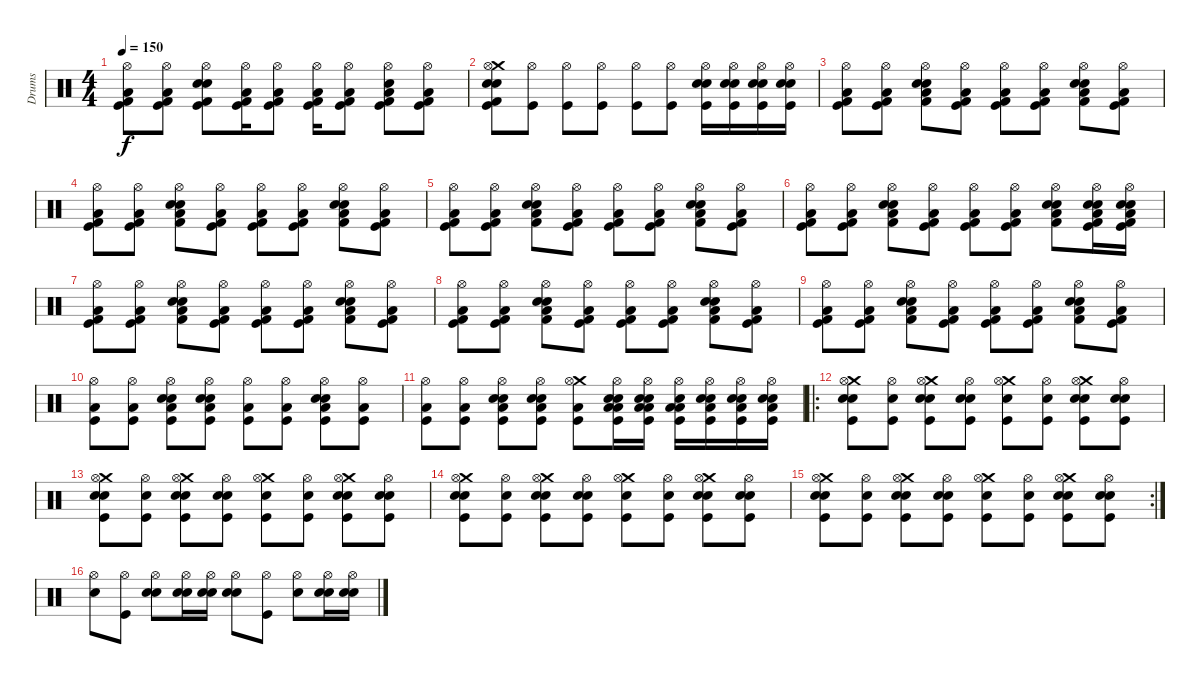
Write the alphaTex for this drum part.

\track ("Drums" "Drums") {instrument percussion}
\staff {score}
\articulation defaults
\ts (4 4)
\tempo 150
\clef neutral
\ks c
("Hi-Hat (open)" "Kick (hit) 2" "Low Floor Tom (hit)" "Kick (hit)").8{dy f} ("Hi-Hat (open)" "Kick (hit) 2" "Low Floor Tom (hit)" "Kick (hit)").8 ("Hi-Hat (open)" "Snare (hit) 2" "Kick (hit) 2" "Electric Snare (hit)" "Kick (hit)").8 ("Hi-Hat (open)" "Low Floor Tom (hit)" "Kick (hit) 2" "Kick (hit)").16 ("Hi-Hat (open)" "Low Floor Tom (hit)" "Kick (hit) 2" "Kick (hit)").8 ("Hi-Hat (open)" "Low Floor Tom (hit)" "Kick (hit) 2" "Kick (hit)").16 ("Hi-Hat (open)" "Low Floor Tom (hit)" "Kick (hit) 2" "Kick (hit)").8 ("Hi-Hat (open)" "Snare (hit) 2" "Low Floor Tom (hit)" "Kick (hit) 2" "Kick (hit)").8 ("Hi-Hat (open)" "Low Floor Tom (hit)" "Kick (hit) 2" "Kick (hit)").8 |
("Crash medium (hit)" "Snare (hit) 2" "Electric Snare (hit)" "Hi-Hat (open)" "Kick (hit) 2" "Kick (hit)").8 ("Hi-Hat (open)" "Kick (hit)").8 ("Hi-Hat (open)" "Kick (hit)").8 ("Hi-Hat (open)" "Kick (hit)").8 ("Hi-Hat (open)" "Kick (hit)").8 ("Hi-Hat (open)" "Kick (hit)").8 ("Electric Snare (hit)" "Snare (hit) 2" "Hi-Hat (open)" "Kick (hit)").16 ("Electric Snare (hit)" "Snare (hit) 2" "Hi-Hat (open)" "Kick (hit)").16 ("Electric Snare (hit)" "Snare (hit) 2" "Hi-Hat (open)" "Kick (hit)").16 ("Electric Snare (hit)" "Snare (hit) 2" "Hi-Hat (open)" "Kick (hit)").16 |
("Kick (hit) 2" "Hi-Hat (open)" "Low Floor Tom (hit)" "Kick (hit)").8 ("Kick (hit) 2" "Hi-Hat (open)" "Low Floor Tom (hit)" "Kick (hit)").8 ("Snare (hit) 2" "Kick (hit) 2" "Hi-Hat (open)" "Low Floor Tom (hit)" "Electric Snare (hit)").8 ("Kick (hit) 2" "Hi-Hat (open)" "Low Floor Tom (hit)" "Kick (hit)").8 ("Kick (hit) 2" "Hi-Hat (open)" "Low Floor Tom (hit)" "Kick (hit)").8 ("Kick (hit) 2" "Hi-Hat (open)" "Low Floor Tom (hit)" "Kick (hit)").8 ("Snare (hit) 2" "Kick (hit) 2" "Hi-Hat (open)" "Low Floor Tom (hit)" "Electric Snare (hit)").8 ("Kick (hit) 2" "Hi-Hat (open)" "Low Floor Tom (hit)" "Kick (hit)").8 |
("Kick (hit) 2" "Hi-Hat (open)" "Low Floor Tom (hit)" "Kick (hit)").8 ("Kick (hit) 2" "Hi-Hat (open)" "Low Floor Tom (hit)" "Kick (hit)").8 ("Snare (hit) 2" "Kick (hit) 2" "Hi-Hat (open)" "Low Floor Tom (hit)" "Electric Snare (hit)").8 ("Kick (hit) 2" "Hi-Hat (open)" "Low Floor Tom (hit)" "Kick (hit)").8 ("Kick (hit) 2" "Hi-Hat (open)" "Low Floor Tom (hit)" "Kick (hit)").8 ("Kick (hit) 2" "Hi-Hat (open)" "Low Floor Tom (hit)" "Kick (hit)").8 ("Snare (hit) 2" "Kick (hit) 2" "Hi-Hat (open)" "Low Floor Tom (hit)" "Electric Snare (hit)").8 ("Kick (hit) 2" "Hi-Hat (open)" "Low Floor Tom (hit)" "Kick (hit)").8 |
("Kick (hit) 2" "Hi-Hat (open)" "Low Floor Tom (hit)" "Kick (hit)").8 ("Kick (hit) 2" "Hi-Hat (open)" "Low Floor Tom (hit)" "Kick (hit)").8 ("Snare (hit) 2" "Kick (hit) 2" "Hi-Hat (open)" "Low Floor Tom (hit)" "Electric Snare (hit)").8 ("Kick (hit) 2" "Hi-Hat (open)" "Low Floor Tom (hit)" "Kick (hit)").8 ("Kick (hit) 2" "Hi-Hat (open)" "Low Floor Tom (hit)" "Kick (hit)").8 ("Kick (hit) 2" "Hi-Hat (open)" "Low Floor Tom (hit)" "Kick (hit)").8 ("Snare (hit) 2" "Kick (hit) 2" "Hi-Hat (open)" "Low Floor Tom (hit)" "Electric Snare (hit)").8 ("Kick (hit) 2" "Hi-Hat (open)" "Low Floor Tom (hit)" "Kick (hit)").8 |
("Kick (hit) 2" "Hi-Hat (open)" "Low Floor Tom (hit)" "Kick (hit)").8 ("Kick (hit) 2" "Hi-Hat (open)" "Low Floor Tom (hit)" "Kick (hit)").8 ("Snare (hit) 2" "Kick (hit) 2" "Hi-Hat (open)" "Low Floor Tom (hit)" "Electric Snare (hit)").8 ("Kick (hit) 2" "Hi-Hat (open)" "Low Floor Tom (hit)" "Kick (hit)").8 ("Kick (hit) 2" "Hi-Hat (open)" "Low Floor Tom (hit)" "Kick (hit)").8 ("Kick (hit) 2" "Hi-Hat (open)" "Low Floor Tom (hit)" "Kick (hit)").8 ("Snare (hit) 2" "Kick (hit) 2" "Hi-Hat (open)" "Low Floor Tom (hit)" "Electric Snare (hit)").8 ("Snare (hit) 2" "Kick (hit) 2" "Hi-Hat (open)" "Low Floor Tom (hit)" "Kick (hit)" "Electric Snare (hit)").16 ("Snare (hit) 2" "Kick (hit) 2" "Hi-Hat (open)" "Low Floor Tom (hit)" "Kick (hit)" "Electric Snare (hit)").16 |
("Kick (hit) 2" "Hi-Hat (open)" "Low Floor Tom (hit)" "Kick (hit)").8 ("Kick (hit) 2" "Hi-Hat (open)" "Low Floor Tom (hit)" "Kick (hit)").8 ("Snare (hit) 2" "Kick (hit) 2" "Hi-Hat (open)" "Low Floor Tom (hit)" "Electric Snare (hit)").8 ("Kick (hit) 2" "Hi-Hat (open)" "Low Floor Tom (hit)" "Kick (hit)").8 ("Kick (hit) 2" "Hi-Hat (open)" "Low Floor Tom (hit)" "Kick (hit)").8 ("Kick (hit) 2" "Hi-Hat (open)" "Low Floor Tom (hit)" "Kick (hit)").8 ("Snare (hit) 2" "Kick (hit) 2" "Hi-Hat (open)" "Low Floor Tom (hit)" "Electric Snare (hit)").8 ("Kick (hit) 2" "Hi-Hat (open)" "Low Floor Tom (hit)" "Kick (hit)").8 |
("Kick (hit) 2" "Hi-Hat (open)" "Low Floor Tom (hit)" "Kick (hit)").8 ("Kick (hit) 2" "Hi-Hat (open)" "Low Floor Tom (hit)" "Kick (hit)").8 ("Snare (hit) 2" "Kick (hit) 2" "Hi-Hat (open)" "Low Floor Tom (hit)" "Electric Snare (hit)").8 ("Kick (hit) 2" "Hi-Hat (open)" "Low Floor Tom (hit)" "Kick (hit)").8 ("Kick (hit) 2" "Hi-Hat (open)" "Low Floor Tom (hit)" "Kick (hit)").8 ("Kick (hit) 2" "Hi-Hat (open)" "Low Floor Tom (hit)" "Kick (hit)").8 ("Snare (hit) 2" "Kick (hit) 2" "Hi-Hat (open)" "Low Floor Tom (hit)" "Electric Snare (hit)").8 ("Kick (hit) 2" "Hi-Hat (open)" "Low Floor Tom (hit)" "Kick (hit)").8 |
("Kick (hit) 2" "Hi-Hat (open)" "Low Floor Tom (hit)" "Kick (hit)").8 ("Kick (hit) 2" "Hi-Hat (open)" "Low Floor Tom (hit)" "Kick (hit)").8 ("Snare (hit) 2" "Kick (hit) 2" "Hi-Hat (open)" "Low Floor Tom (hit)" "Electric Snare (hit)").8 ("Kick (hit) 2" "Hi-Hat (open)" "Low Floor Tom (hit)" "Kick (hit)").8 ("Kick (hit) 2" "Hi-Hat (open)" "Low Floor Tom (hit)" "Kick (hit)").8 ("Kick (hit) 2" "Hi-Hat (open)" "Low Floor Tom (hit)" "Kick (hit)").8 ("Snare (hit) 2" "Kick (hit) 2" "Hi-Hat (open)" "Low Floor Tom (hit)" "Electric Snare (hit)").8 ("Kick (hit) 2" "Hi-Hat (open)" "Low Floor Tom (hit)" "Kick (hit)").8 |
("Low Floor Tom (hit)" "Hi-Hat (open)" "Kick (hit)").8 ("Low Floor Tom (hit)" "Hi-Hat (open)" "Kick (hit)").8 ("Snare (hit) 2" "Kick (hit)" "Low Floor Tom (hit)" "Hi-Hat (open)" "Electric Snare (hit)").8 ("Snare (hit) 2" "Kick (hit)" "Low Floor Tom (hit)" "Hi-Hat (open)" "Electric Snare (hit)").8 ("Low Floor Tom (hit)" "Hi-Hat (open)" "Kick (hit)").8 ("Low Floor Tom (hit)" "Hi-Hat (open)" "Kick (hit)").8 ("Snare (hit) 2" "Kick (hit)" "Low Floor Tom (hit)" "Hi-Hat (open)" "Electric Snare (hit)").8 ("Low Floor Tom (hit)" "Hi-Hat (open)" "Kick (hit)").8 |
("Low Floor Tom (hit)" "Hi-Hat (open)" "Kick (hit)").8 ("Low Floor Tom (hit)" "Hi-Hat (open)" "Kick (hit)").8 ("Snare (hit) 2" "Kick (hit)" "Low Floor Tom (hit)" "Hi-Hat (open)" "Electric Snare (hit)").8 ("Snare (hit) 2" "Kick (hit)" "Low Floor Tom (hit)" "Hi-Hat (open)" "Electric Snare (hit)").8 ("Crash medium (hit)" "Low Floor Tom (hit)" "Hi-Hat (open)" "Kick (hit)").8 ("Electric Snare (hit)" "Snare (hit) 2" "Low Floor Tom (hit)" "Hi-Hat (open)" "Kick (hit)" "Low Floor Tom (hit)").16 ("Snare (hit) 2" "Kick (hit)" "Low Floor Tom (hit)" "Hi-Hat (open)" "Electric Snare (hit)" "Low Floor Tom (hit)").16 ("Low Floor Tom (hit)" "Electric Snare (hit)" "Low Floor Tom (hit)" "Hi-Hat (open)" "Kick (hit)").16 ("Low Floor Tom (hit)" "Electric Snare (hit)" "Snare (hit) 2" "Hi-Hat (open)" "Kick (hit)").16 ("Low Floor Tom (hit)" "Electric Snare (hit)" "Snare (hit) 2" "Hi-Hat (open)" "Kick (hit)").16 ("Low Floor Tom (hit)" "Electric Snare (hit)" "Snare (hit) 2" "Hi-Hat (open)" "Kick (hit)").16 |
\ro
("Snare (hit) 2" "Crash medium (hit)" "Hi-Hat (open)" "Electric Snare (hit)" "Kick (hit)").8{volume 16} ("Hi-Hat (open)" "Electric Snare (hit)" "Kick (hit)").8 ("Crash medium (hit)" "Hi-Hat (open)" "Snare (hit) 2" "Electric Snare (hit)" "Kick (hit)").8 ("Hi-Hat (open)" "Snare (hit) 2" "Electric Snare (hit)" "Kick (hit)").8 ("Crash medium (hit)" "Hi-Hat (open)" "Electric Snare (hit)" "Kick (hit)").8 ("Hi-Hat (open)" "Electric Snare (hit)" "Kick (hit)").8 ("Crash medium (hit)" "Hi-Hat (open)" "Snare (hit) 2" "Electric Snare (hit)" "Kick (hit)").8 ("Hi-Hat (open)" "Snare (hit) 2" "Electric Snare (hit)" "Kick (hit)").8 |
("Snare (hit) 2" "Crash medium (hit)" "Hi-Hat (open)" "Electric Snare (hit)" "Kick (hit)").8 ("Hi-Hat (open)" "Electric Snare (hit)" "Kick (hit)").8 ("Crash medium (hit)" "Hi-Hat (open)" "Snare (hit) 2" "Electric Snare (hit)" "Kick (hit)").8 ("Hi-Hat (open)" "Snare (hit) 2" "Electric Snare (hit)" "Kick (hit)").8 ("Crash medium (hit)" "Hi-Hat (open)" "Electric Snare (hit)" "Kick (hit)").8 ("Hi-Hat (open)" "Electric Snare (hit)" "Kick (hit)").8 ("Crash medium (hit)" "Hi-Hat (open)" "Snare (hit) 2" "Electric Snare (hit)" "Kick (hit)").8 ("Hi-Hat (open)" "Snare (hit) 2" "Electric Snare (hit)" "Kick (hit)").8 |
("Snare (hit) 2" "Crash medium (hit)" "Hi-Hat (open)" "Electric Snare (hit)" "Kick (hit)").8{volume 16} ("Hi-Hat (open)" "Electric Snare (hit)" "Kick (hit)").8 ("Crash medium (hit)" "Hi-Hat (open)" "Snare (hit) 2" "Electric Snare (hit)" "Kick (hit)").8 ("Hi-Hat (open)" "Snare (hit) 2" "Electric Snare (hit)" "Kick (hit)").8 ("Crash medium (hit)" "Hi-Hat (open)" "Electric Snare (hit)" "Kick (hit)").8 ("Hi-Hat (open)" "Electric Snare (hit)" "Kick (hit)").8 ("Crash medium (hit)" "Hi-Hat (open)" "Snare (hit) 2" "Electric Snare (hit)" "Kick (hit)").8 ("Hi-Hat (open)" "Snare (hit) 2" "Electric Snare (hit)" "Kick (hit)").8 |
\rc 2
("Snare (hit) 2" "Crash medium (hit)" "Hi-Hat (open)" "Electric Snare (hit)" "Kick (hit)").8 ("Hi-Hat (open)" "Electric Snare (hit)" "Kick (hit)").8 ("Crash medium (hit)" "Hi-Hat (open)" "Snare (hit) 2" "Electric Snare (hit)" "Kick (hit)").8 ("Hi-Hat (open)" "Snare (hit) 2" "Electric Snare (hit)" "Kick (hit)").8 ("Crash medium (hit)" "Hi-Hat (open)" "Electric Snare (hit)" "Kick (hit)").8 ("Hi-Hat (open)" "Electric Snare (hit)" "Kick (hit)").8 ("Crash medium (hit)" "Hi-Hat (open)" "Snare (hit) 2" "Electric Snare (hit)" "Kick (hit)").8 ("Hi-Hat (open)" "Snare (hit) 2" "Electric Snare (hit)" "Kick (hit)").8 |
("Hi-Hat (open)" "Snare (hit) 2").8 ("Hi-Hat (open)" "Kick (hit)").8 ("Electric Snare (hit)" "Hi-Hat (open)" "Snare (hit) 2").8 ("Electric Snare (hit)" "Hi-Hat (open)" "Snare (hit) 2").16 ("Electric Snare (hit)" "Hi-Hat (open)" "Snare (hit) 2").16 ("Electric Snare (hit)" "Hi-Hat (open)" "Snare (hit) 2").8 ("Hi-Hat (open)" "Kick (hit)").8 ("Hi-Hat (open)" "Snare (hit) 2").8 ("Electric Snare (hit)" "Hi-Hat (open)" "Snare (hit) 2").16 ("Electric Snare (hit)" "Hi-Hat (open)" "Snare (hit) 2").16
